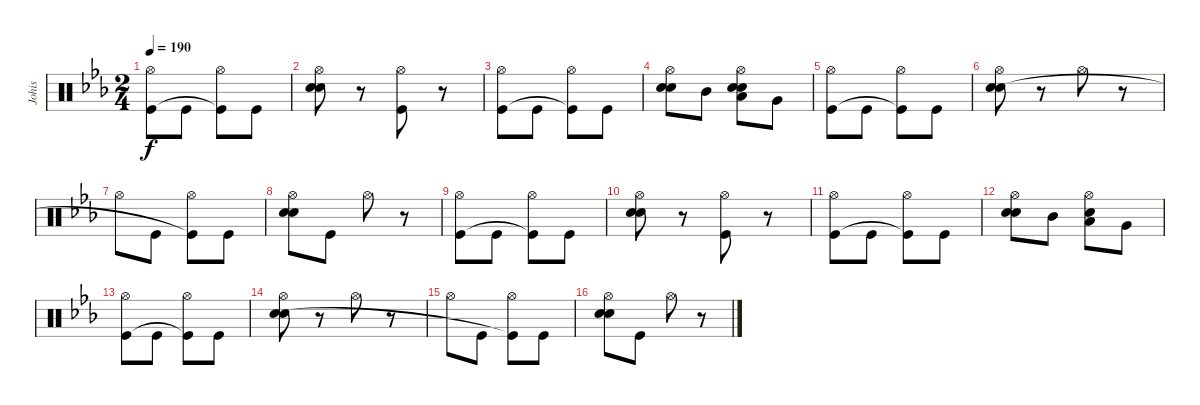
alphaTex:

\track ("Johis" "Johis") {instrument percussion}
\staff {score}
\articulation defaults
\ts (2 4)
\tempo 190
\clef neutral
\ks eb
("Hi-Hat (open)" "Kick (hit)").8{dy f} "Kick (hit)".8 ("Hi-Hat (open)" "Kick (hit)"{t}).8 "Kick (hit)".8 |
("Hi-Hat (open)" "Snare (hit) 2" "Electric Snare (hit)").8 r.8 ("Hi-Hat (open)" "Kick (hit)").8 r.8 |
("Hi-Hat (open)" "Kick (hit)").8 "Kick (hit)".8 ("Hi-Hat (open)" "Kick (hit)"{t}).8 "Kick (hit)".8 |
("Hi-Hat (open)" "Snare (hit) 2" "Electric Snare (hit)").8 "Mid Tom (hit)".8 ("Hi-Hat (open)" "Snare (hit) 2" "Low Tom (hit)" "Electric Snare (hit)").8 "Very Low Tom (hit)".8 |
("Hi-Hat (open)" "Kick (hit)").8 "Kick (hit)".8 ("Hi-Hat (open)" "Kick (hit)"{t}).8 "Kick (hit)".8 |
("Hi-Hat (open)" "Snare (hit) 2" "Electric Snare (hit)").8 r.8 "Hi-Hat (open)".8 r.8 |
"Hi-Hat (open)".8 "Kick (hit)".8 ("Hi-Hat (open)" "Kick (hit)"{t}).8 "Kick (hit)".8 |
("Hi-Hat (open)" "Snare (hit) 2" "Electric Snare (hit)").8 "Kick (hit)".8 "Hi-Hat (open)".8 r.8 |
("Hi-Hat (open)" "Kick (hit)").8 "Kick (hit)".8 ("Hi-Hat (open)" "Kick (hit)"{t}).8 "Kick (hit)".8 |
("Hi-Hat (open)" "Snare (hit) 2" "Electric Snare (hit)").8 r.8 ("Hi-Hat (open)" "Kick (hit)").8 r.8 |
("Hi-Hat (open)" "Kick (hit)").8 "Kick (hit)".8 ("Hi-Hat (open)" "Kick (hit)"{t}).8 "Kick (hit)".8 |
("Hi-Hat (open)" "Snare (hit) 2" "Electric Snare (hit)").8 "Mid Tom (hit)".8 ("Hi-Hat (open)" "Snare (hit) 2" "Low Tom (hit)").8 "Very Low Tom (hit)".8 |
("Hi-Hat (open)" "Kick (hit)").8 "Kick (hit)".8 ("Hi-Hat (open)" "Kick (hit)"{t}).8 "Kick (hit)".8 |
("Hi-Hat (open)" "Snare (hit) 2" "Electric Snare (hit)").8 r.8 "Hi-Hat (open)".8 r.8 |
"Hi-Hat (open)".8 "Kick (hit)".8 ("Hi-Hat (open)" "Kick (hit)"{t}).8 "Kick (hit)".8 |
("Hi-Hat (open)" "Snare (hit) 2" "Electric Snare (hit)").8 "Kick (hit)".8 "Hi-Hat (open)".8 r.8
